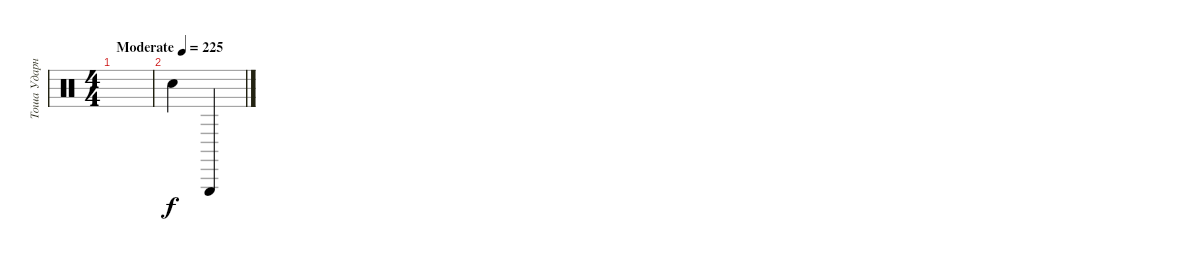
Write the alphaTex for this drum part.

\track ("Тоша Ударные" "Тоша Ударн") {instrument percussion}
\staff {score}
\articulation defaults
\ts (4 4)
\tempo (225 "Moderate")
\clef neutral
\ks c
|
"Metronome (bell)".4 "Triangle (hit)".4
